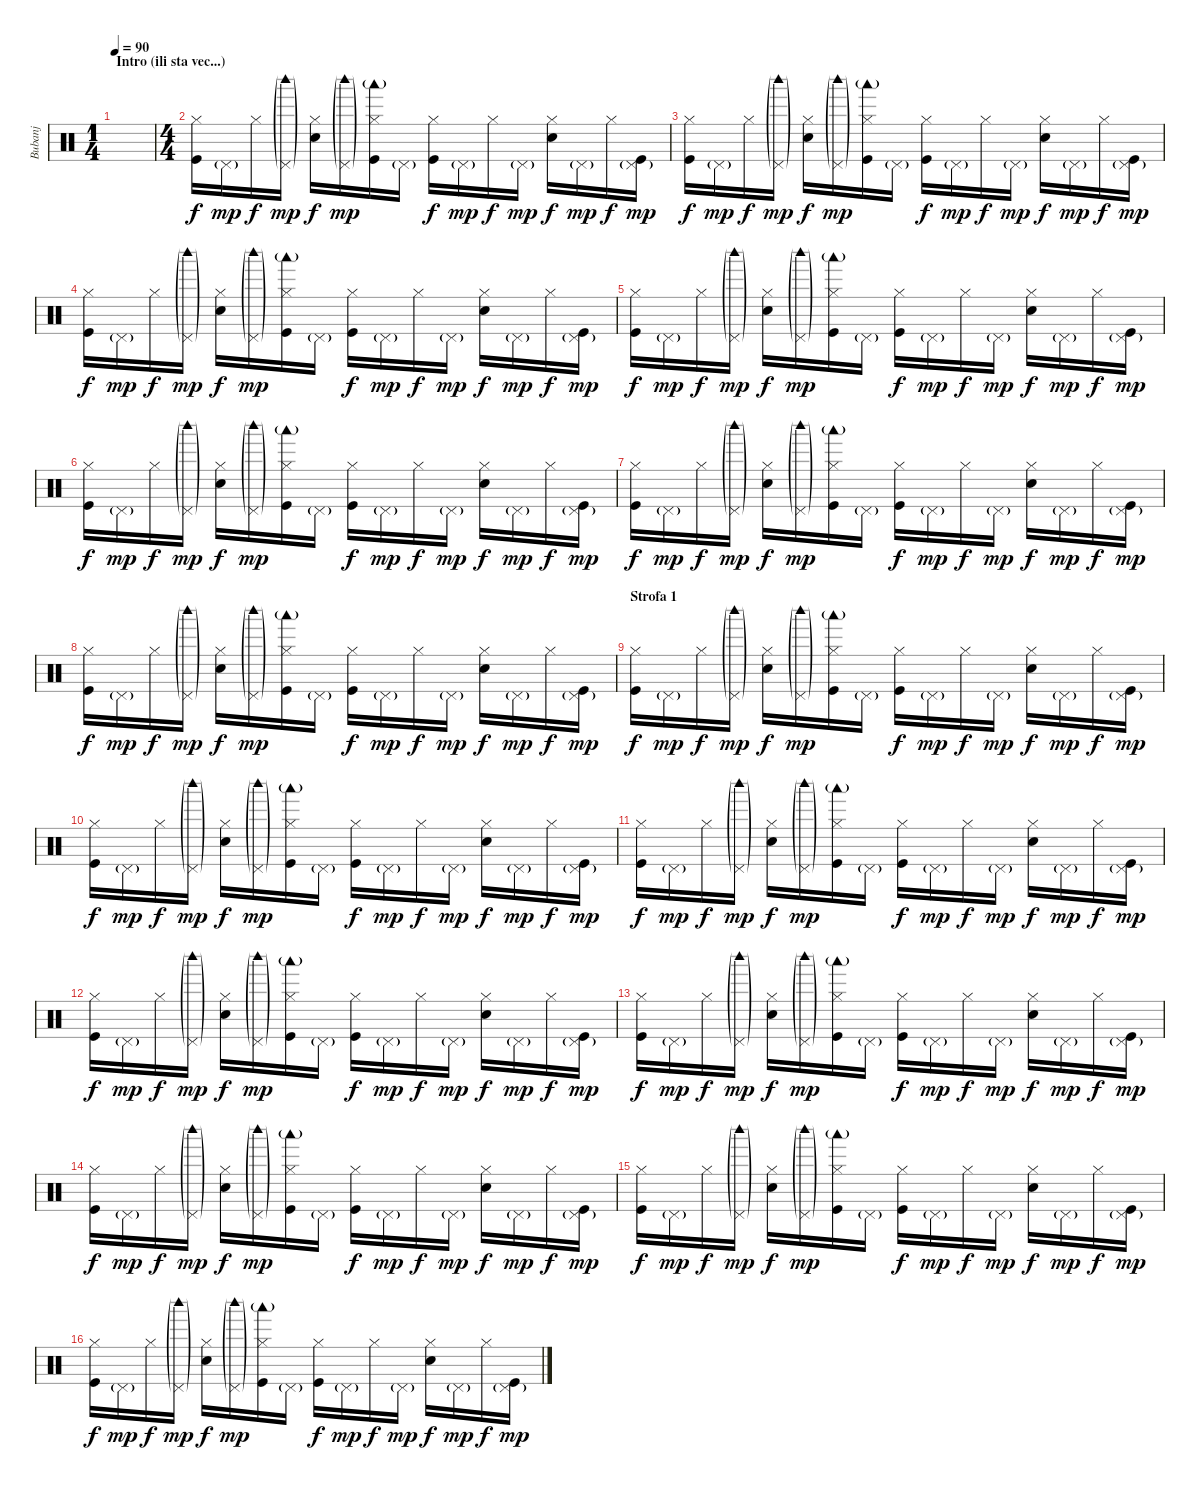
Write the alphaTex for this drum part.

\track ("Bubanj" "Bubanj") {instrument percussion}
\staff {score}
\articulation defaults
\ts (1 4)
\section ("" "Intro (ili sta vec...)")
\tempo 90
\clef neutral
\ks c
|
\ts (4 4)
("Hi-Hat (closed)" "Kick (hit)").16{volume 11} "Pedal Hi-Hat (hit)"{g}.16{dy mp} "Hi-Hat (closed)".16{dy f} ("Pedal Hi-Hat (hit)"{g} "Woodblock high (hit)"{g}).16{dy mp} ("Hi-Hat (closed)" "Snare (hit) 2").16{dy f} ("Pedal Hi-Hat (hit)"{g} "Woodblock high (hit)"{g}).16{dy mp} ("Hi-Hat (closed)" "Woodblock low (hit)"{g} "Kick (hit)").16 "Pedal Hi-Hat (hit)"{g}.16 ("Hi-Hat (closed)" "Kick (hit)").16{dy f} "Pedal Hi-Hat (hit)"{g}.16{dy mp} "Hi-Hat (closed)".16{dy f} "Pedal Hi-Hat (hit)"{g}.16{dy mp} ("Hi-Hat (closed)" "Snare (hit) 2").16{dy f} "Pedal Hi-Hat (hit)"{g}.16{dy mp} "Hi-Hat (closed)".16{dy f} ("Pedal Hi-Hat (hit)"{g} "Kick (hit)").16{dy mp} |
("Hi-Hat (closed)" "Kick (hit)").16{dy f} "Pedal Hi-Hat (hit)"{g}.16{dy mp} "Hi-Hat (closed)".16{dy f} ("Pedal Hi-Hat (hit)"{g} "Woodblock high (hit)"{g}).16{dy mp} ("Hi-Hat (closed)" "Snare (hit) 2").16{dy f} ("Pedal Hi-Hat (hit)"{g} "Woodblock high (hit)"{g}).16{dy mp} ("Hi-Hat (closed)" "Woodblock low (hit)"{g} "Kick (hit)").16 "Pedal Hi-Hat (hit)"{g}.16 ("Hi-Hat (closed)" "Kick (hit)").16{dy f} "Pedal Hi-Hat (hit)"{g}.16{dy mp} "Hi-Hat (closed)".16{dy f} "Pedal Hi-Hat (hit)"{g}.16{dy mp} ("Hi-Hat (closed)" "Snare (hit) 2").16{dy f} "Pedal Hi-Hat (hit)"{g}.16{dy mp} "Hi-Hat (closed)".16{dy f} ("Pedal Hi-Hat (hit)"{g} "Kick (hit)").16{dy mp} |
("Hi-Hat (closed)" "Kick (hit)").16{dy f} "Pedal Hi-Hat (hit)"{g}.16{dy mp} "Hi-Hat (closed)".16{dy f} ("Pedal Hi-Hat (hit)"{g} "Woodblock high (hit)"{g}).16{dy mp} ("Hi-Hat (closed)" "Snare (hit) 2").16{dy f} ("Pedal Hi-Hat (hit)"{g} "Woodblock high (hit)"{g}).16{dy mp} ("Hi-Hat (closed)" "Woodblock low (hit)"{g} "Kick (hit)").16 "Pedal Hi-Hat (hit)"{g}.16 ("Hi-Hat (closed)" "Kick (hit)").16{dy f} "Pedal Hi-Hat (hit)"{g}.16{dy mp} "Hi-Hat (closed)".16{dy f} "Pedal Hi-Hat (hit)"{g}.16{dy mp} ("Hi-Hat (closed)" "Snare (hit) 2").16{dy f} "Pedal Hi-Hat (hit)"{g}.16{dy mp} "Hi-Hat (closed)".16{dy f} ("Pedal Hi-Hat (hit)"{g} "Kick (hit)").16{dy mp} |
("Hi-Hat (closed)" "Kick (hit)").16{dy f} "Pedal Hi-Hat (hit)"{g}.16{dy mp} "Hi-Hat (closed)".16{dy f} ("Pedal Hi-Hat (hit)"{g} "Woodblock high (hit)"{g}).16{dy mp} ("Hi-Hat (closed)" "Snare (hit) 2").16{dy f} ("Pedal Hi-Hat (hit)"{g} "Woodblock high (hit)"{g}).16{dy mp} ("Hi-Hat (closed)" "Woodblock low (hit)"{g} "Kick (hit)").16 "Pedal Hi-Hat (hit)"{g}.16 ("Hi-Hat (closed)" "Kick (hit)").16{dy f} "Pedal Hi-Hat (hit)"{g}.16{dy mp} "Hi-Hat (closed)".16{dy f} "Pedal Hi-Hat (hit)"{g}.16{dy mp} ("Hi-Hat (closed)" "Snare (hit) 2").16{dy f} "Pedal Hi-Hat (hit)"{g}.16{dy mp} "Hi-Hat (closed)".16{dy f} ("Pedal Hi-Hat (hit)"{g} "Kick (hit)").16{dy mp} |
("Hi-Hat (closed)" "Kick (hit)").16{dy f} "Pedal Hi-Hat (hit)"{g}.16{dy mp} "Hi-Hat (closed)".16{dy f} ("Pedal Hi-Hat (hit)"{g} "Woodblock high (hit)"{g}).16{dy mp} ("Hi-Hat (closed)" "Snare (hit) 2").16{dy f} ("Pedal Hi-Hat (hit)"{g} "Woodblock high (hit)"{g}).16{dy mp} ("Hi-Hat (closed)" "Woodblock low (hit)"{g} "Kick (hit)").16 "Pedal Hi-Hat (hit)"{g}.16 ("Hi-Hat (closed)" "Kick (hit)").16{dy f} "Pedal Hi-Hat (hit)"{g}.16{dy mp} "Hi-Hat (closed)".16{dy f} "Pedal Hi-Hat (hit)"{g}.16{dy mp} ("Hi-Hat (closed)" "Snare (hit) 2").16{dy f} "Pedal Hi-Hat (hit)"{g}.16{dy mp} "Hi-Hat (closed)".16{dy f} ("Pedal Hi-Hat (hit)"{g} "Kick (hit)").16{dy mp} |
("Hi-Hat (closed)" "Kick (hit)").16{dy f} "Pedal Hi-Hat (hit)"{g}.16{dy mp} "Hi-Hat (closed)".16{dy f} ("Pedal Hi-Hat (hit)"{g} "Woodblock high (hit)"{g}).16{dy mp} ("Hi-Hat (closed)" "Snare (hit) 2").16{dy f} ("Pedal Hi-Hat (hit)"{g} "Woodblock high (hit)"{g}).16{dy mp} ("Hi-Hat (closed)" "Woodblock low (hit)"{g} "Kick (hit)").16 "Pedal Hi-Hat (hit)"{g}.16 ("Hi-Hat (closed)" "Kick (hit)").16{dy f} "Pedal Hi-Hat (hit)"{g}.16{dy mp} "Hi-Hat (closed)".16{dy f} "Pedal Hi-Hat (hit)"{g}.16{dy mp} ("Hi-Hat (closed)" "Snare (hit) 2").16{dy f} "Pedal Hi-Hat (hit)"{g}.16{dy mp} "Hi-Hat (closed)".16{dy f} ("Pedal Hi-Hat (hit)"{g} "Kick (hit)").16{dy mp} |
("Hi-Hat (closed)" "Kick (hit)").16{dy f} "Pedal Hi-Hat (hit)"{g}.16{dy mp} "Hi-Hat (closed)".16{dy f} ("Pedal Hi-Hat (hit)"{g} "Woodblock high (hit)"{g}).16{dy mp} ("Hi-Hat (closed)" "Snare (hit) 2").16{dy f} ("Pedal Hi-Hat (hit)"{g} "Woodblock high (hit)"{g}).16{dy mp} ("Hi-Hat (closed)" "Woodblock low (hit)"{g} "Kick (hit)").16 "Pedal Hi-Hat (hit)"{g}.16 ("Hi-Hat (closed)" "Kick (hit)").16{dy f} "Pedal Hi-Hat (hit)"{g}.16{dy mp} "Hi-Hat (closed)".16{dy f} "Pedal Hi-Hat (hit)"{g}.16{dy mp} ("Hi-Hat (closed)" "Snare (hit) 2").16{dy f} "Pedal Hi-Hat (hit)"{g}.16{dy mp} "Hi-Hat (closed)".16{dy f} ("Pedal Hi-Hat (hit)"{g} "Kick (hit)").16{dy mp} |
\section ("" "Strofa 1")
("Hi-Hat (closed)" "Kick (hit)").16{dy f} "Pedal Hi-Hat (hit)"{g}.16{dy mp} "Hi-Hat (closed)".16{dy f} ("Pedal Hi-Hat (hit)"{g} "Woodblock high (hit)"{g}).16{dy mp} ("Hi-Hat (closed)" "Snare (hit) 2").16{dy f} ("Pedal Hi-Hat (hit)"{g} "Woodblock high (hit)"{g}).16{dy mp} ("Hi-Hat (closed)" "Woodblock low (hit)"{g} "Kick (hit)").16 "Pedal Hi-Hat (hit)"{g}.16 ("Hi-Hat (closed)" "Kick (hit)").16{dy f} "Pedal Hi-Hat (hit)"{g}.16{dy mp} "Hi-Hat (closed)".16{dy f} "Pedal Hi-Hat (hit)"{g}.16{dy mp} ("Hi-Hat (closed)" "Snare (hit) 2").16{dy f} "Pedal Hi-Hat (hit)"{g}.16{dy mp} "Hi-Hat (closed)".16{dy f} ("Pedal Hi-Hat (hit)"{g} "Kick (hit)").16{dy mp} |
("Hi-Hat (closed)" "Kick (hit)").16{dy f} "Pedal Hi-Hat (hit)"{g}.16{dy mp} "Hi-Hat (closed)".16{dy f} ("Pedal Hi-Hat (hit)"{g} "Woodblock high (hit)"{g}).16{dy mp} ("Hi-Hat (closed)" "Snare (hit) 2").16{dy f} ("Pedal Hi-Hat (hit)"{g} "Woodblock high (hit)"{g}).16{dy mp} ("Hi-Hat (closed)" "Woodblock low (hit)"{g} "Kick (hit)").16 "Pedal Hi-Hat (hit)"{g}.16 ("Hi-Hat (closed)" "Kick (hit)").16{dy f} "Pedal Hi-Hat (hit)"{g}.16{dy mp} "Hi-Hat (closed)".16{dy f} "Pedal Hi-Hat (hit)"{g}.16{dy mp} ("Hi-Hat (closed)" "Snare (hit) 2").16{dy f} "Pedal Hi-Hat (hit)"{g}.16{dy mp} "Hi-Hat (closed)".16{dy f} ("Pedal Hi-Hat (hit)"{g} "Kick (hit)").16{dy mp} |
("Hi-Hat (closed)" "Kick (hit)").16{dy f} "Pedal Hi-Hat (hit)"{g}.16{dy mp} "Hi-Hat (closed)".16{dy f} ("Pedal Hi-Hat (hit)"{g} "Woodblock high (hit)"{g}).16{dy mp} ("Hi-Hat (closed)" "Snare (hit) 2").16{dy f} ("Pedal Hi-Hat (hit)"{g} "Woodblock high (hit)"{g}).16{dy mp} ("Hi-Hat (closed)" "Woodblock low (hit)"{g} "Kick (hit)").16 "Pedal Hi-Hat (hit)"{g}.16 ("Hi-Hat (closed)" "Kick (hit)").16{dy f} "Pedal Hi-Hat (hit)"{g}.16{dy mp} "Hi-Hat (closed)".16{dy f} "Pedal Hi-Hat (hit)"{g}.16{dy mp} ("Hi-Hat (closed)" "Snare (hit) 2").16{dy f} "Pedal Hi-Hat (hit)"{g}.16{dy mp} "Hi-Hat (closed)".16{dy f} ("Pedal Hi-Hat (hit)"{g} "Kick (hit)").16{dy mp} |
("Hi-Hat (closed)" "Kick (hit)").16{dy f} "Pedal Hi-Hat (hit)"{g}.16{dy mp} "Hi-Hat (closed)".16{dy f} ("Pedal Hi-Hat (hit)"{g} "Woodblock high (hit)"{g}).16{dy mp} ("Hi-Hat (closed)" "Snare (hit) 2").16{dy f} ("Pedal Hi-Hat (hit)"{g} "Woodblock high (hit)"{g}).16{dy mp} ("Hi-Hat (closed)" "Woodblock low (hit)"{g} "Kick (hit)").16 "Pedal Hi-Hat (hit)"{g}.16 ("Hi-Hat (closed)" "Kick (hit)").16{dy f} "Pedal Hi-Hat (hit)"{g}.16{dy mp} "Hi-Hat (closed)".16{dy f} "Pedal Hi-Hat (hit)"{g}.16{dy mp} ("Hi-Hat (closed)" "Snare (hit) 2").16{dy f} "Pedal Hi-Hat (hit)"{g}.16{dy mp} "Hi-Hat (closed)".16{dy f} ("Pedal Hi-Hat (hit)"{g} "Kick (hit)").16{dy mp} |
("Hi-Hat (closed)" "Kick (hit)").16{dy f} "Pedal Hi-Hat (hit)"{g}.16{dy mp} "Hi-Hat (closed)".16{dy f} ("Pedal Hi-Hat (hit)"{g} "Woodblock high (hit)"{g}).16{dy mp} ("Hi-Hat (closed)" "Snare (hit) 2").16{dy f} ("Pedal Hi-Hat (hit)"{g} "Woodblock high (hit)"{g}).16{dy mp} ("Hi-Hat (closed)" "Woodblock low (hit)"{g} "Kick (hit)").16 "Pedal Hi-Hat (hit)"{g}.16 ("Hi-Hat (closed)" "Kick (hit)").16{dy f} "Pedal Hi-Hat (hit)"{g}.16{dy mp} "Hi-Hat (closed)".16{dy f} "Pedal Hi-Hat (hit)"{g}.16{dy mp} ("Hi-Hat (closed)" "Snare (hit) 2").16{dy f} "Pedal Hi-Hat (hit)"{g}.16{dy mp} "Hi-Hat (closed)".16{dy f} ("Pedal Hi-Hat (hit)"{g} "Kick (hit)").16{dy mp} |
("Hi-Hat (closed)" "Kick (hit)").16{dy f} "Pedal Hi-Hat (hit)"{g}.16{dy mp} "Hi-Hat (closed)".16{dy f} ("Pedal Hi-Hat (hit)"{g} "Woodblock high (hit)"{g}).16{dy mp} ("Hi-Hat (closed)" "Snare (hit) 2").16{dy f} ("Pedal Hi-Hat (hit)"{g} "Woodblock high (hit)"{g}).16{dy mp} ("Hi-Hat (closed)" "Woodblock low (hit)"{g} "Kick (hit)").16 "Pedal Hi-Hat (hit)"{g}.16 ("Hi-Hat (closed)" "Kick (hit)").16{dy f} "Pedal Hi-Hat (hit)"{g}.16{dy mp} "Hi-Hat (closed)".16{dy f} "Pedal Hi-Hat (hit)"{g}.16{dy mp} ("Hi-Hat (closed)" "Snare (hit) 2").16{dy f} "Pedal Hi-Hat (hit)"{g}.16{dy mp} "Hi-Hat (closed)".16{dy f} ("Pedal Hi-Hat (hit)"{g} "Kick (hit)").16{dy mp} |
("Hi-Hat (closed)" "Kick (hit)").16{dy f} "Pedal Hi-Hat (hit)"{g}.16{dy mp} "Hi-Hat (closed)".16{dy f} ("Pedal Hi-Hat (hit)"{g} "Woodblock high (hit)"{g}).16{dy mp} ("Hi-Hat (closed)" "Snare (hit) 2").16{dy f} ("Pedal Hi-Hat (hit)"{g} "Woodblock high (hit)"{g}).16{dy mp} ("Hi-Hat (closed)" "Woodblock low (hit)"{g} "Kick (hit)").16 "Pedal Hi-Hat (hit)"{g}.16 ("Hi-Hat (closed)" "Kick (hit)").16{dy f} "Pedal Hi-Hat (hit)"{g}.16{dy mp} "Hi-Hat (closed)".16{dy f} "Pedal Hi-Hat (hit)"{g}.16{dy mp} ("Hi-Hat (closed)" "Snare (hit) 2").16{dy f} "Pedal Hi-Hat (hit)"{g}.16{dy mp} "Hi-Hat (closed)".16{dy f} ("Pedal Hi-Hat (hit)"{g} "Kick (hit)").16{dy mp} |
("Hi-Hat (closed)" "Kick (hit)").16{dy f} "Pedal Hi-Hat (hit)"{g}.16{dy mp} "Hi-Hat (closed)".16{dy f} ("Pedal Hi-Hat (hit)"{g} "Woodblock high (hit)"{g}).16{dy mp} ("Hi-Hat (closed)" "Snare (hit) 2").16{dy f} ("Pedal Hi-Hat (hit)"{g} "Woodblock high (hit)"{g}).16{dy mp} ("Hi-Hat (closed)" "Woodblock low (hit)"{g} "Kick (hit)").16 "Pedal Hi-Hat (hit)"{g}.16 ("Hi-Hat (closed)" "Kick (hit)").16{dy f} "Pedal Hi-Hat (hit)"{g}.16{dy mp} "Hi-Hat (closed)".16{dy f} "Pedal Hi-Hat (hit)"{g}.16{dy mp} ("Hi-Hat (closed)" "Snare (hit) 2").16{dy f} "Pedal Hi-Hat (hit)"{g}.16{dy mp} "Hi-Hat (closed)".16{dy f} ("Pedal Hi-Hat (hit)"{g} "Kick (hit)").16{dy mp}
